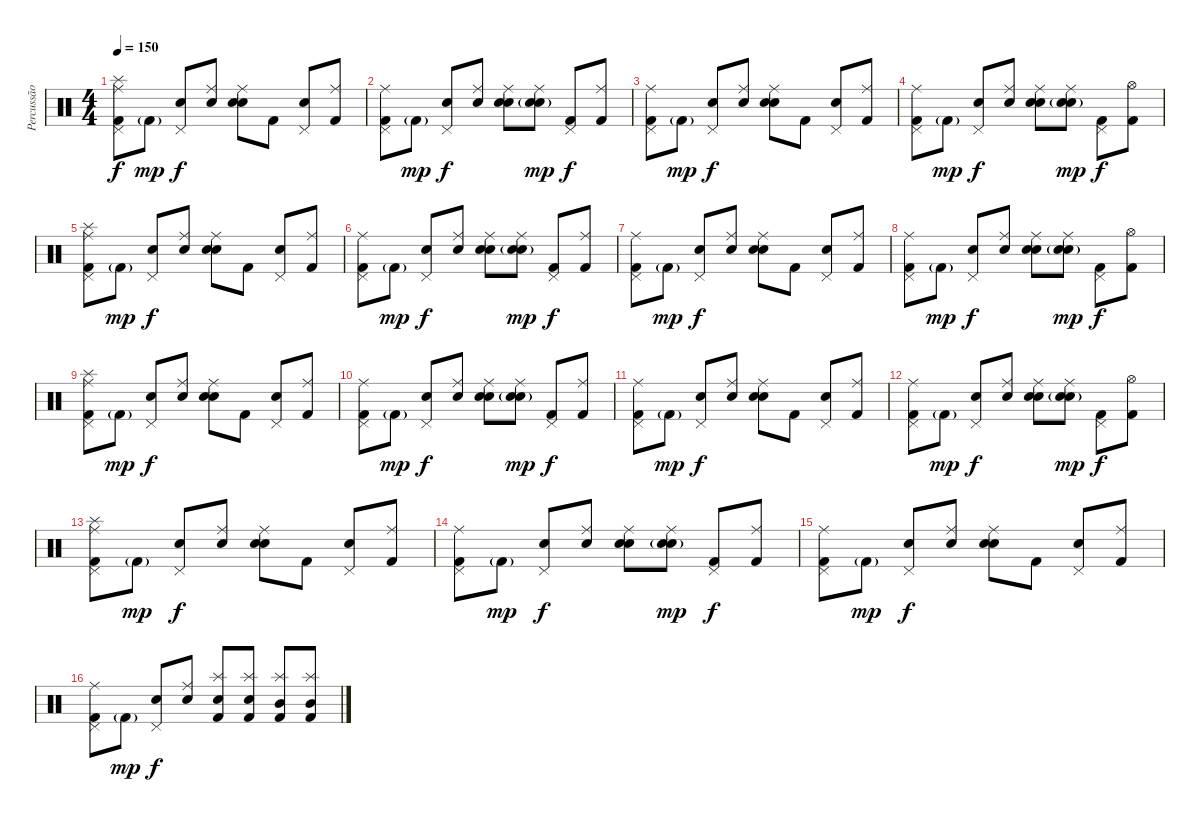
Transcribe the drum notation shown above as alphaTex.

\track ("Percussão" "Percussão") {instrument percussion}
\staff {score}
\articulation defaults
\ts (4 4)
\tempo 150
\clef neutral
\ks c
("Kick (hit) 2" "Pedal Hi-Hat (hit)" "Splash (hit)" "Ride (middle)").8{dy f} "Kick (hit) 2"{g}.8{dy mp} ("Snare (hit)" "Pedal Hi-Hat (hit)").8{dy f} ("Snare (hit)" "Ride (middle)").8 ("Snare (hit)" "Snare (hit) 2" "Ride (middle)").8 "Kick (hit) 2".8 ("Snare (hit)" "Pedal Hi-Hat (hit)").8 ("Kick (hit) 2" "Ride (middle)").8 |
("Kick (hit) 2" "Pedal Hi-Hat (hit)" "Ride (middle)").8 "Kick (hit) 2"{g}.8{dy mp} ("Snare (hit)" "Pedal Hi-Hat (hit)").8{dy f} ("Snare (hit)" "Ride (middle)").8 ("Snare (hit)" "Snare (hit) 2" "Ride (middle)").8 ("Snare (hit)" "Snare (hit) 2"{g} "Ride (middle)").8{dy mp} ("Kick (hit) 2" "Pedal Hi-Hat (hit)").8{dy f} ("Kick (hit) 2" "Ride (middle)").8 |
("Kick (hit) 2" "Pedal Hi-Hat (hit)" "Ride (middle)").8 "Kick (hit) 2"{g}.8{dy mp} ("Snare (hit)" "Pedal Hi-Hat (hit)").8{dy f} ("Snare (hit)" "Ride (middle)").8 ("Snare (hit)" "Snare (hit) 2" "Ride (middle)").8 "Kick (hit) 2".8 ("Snare (hit)" "Pedal Hi-Hat (hit)").8 ("Kick (hit) 2" "Ride (middle)").8 |
("Kick (hit) 2" "Pedal Hi-Hat (hit)" "Ride (middle)").8 "Kick (hit) 2"{g}.8{dy mp} ("Snare (hit)" "Pedal Hi-Hat (hit)").8{dy f} ("Snare (hit)" "Ride (middle)").8 ("Snare (hit)" "Snare (hit) 2" "Ride (middle)").8 ("Snare (hit)" "Snare (hit) 2"{g} "Ride (middle)").8{dy mp} ("Kick (hit) 2" "Pedal Hi-Hat (hit)").8{dy f} ("Kick (hit) 2" "Hi-Hat (open)").8 |
("Kick (hit) 2" "Pedal Hi-Hat (hit)" "Splash (hit)" "Ride (middle)").8 "Kick (hit) 2"{g}.8{dy mp} ("Snare (hit)" "Pedal Hi-Hat (hit)").8{dy f} ("Snare (hit)" "Ride (middle)").8 ("Snare (hit)" "Snare (hit) 2" "Ride (middle)").8 "Kick (hit) 2".8 ("Snare (hit)" "Pedal Hi-Hat (hit)").8 ("Kick (hit) 2" "Ride (middle)").8 |
("Kick (hit) 2" "Pedal Hi-Hat (hit)" "Ride (middle)").8 "Kick (hit) 2"{g}.8{dy mp} ("Snare (hit)" "Pedal Hi-Hat (hit)").8{dy f} ("Snare (hit)" "Ride (middle)").8 ("Snare (hit)" "Snare (hit) 2" "Ride (middle)").8 ("Snare (hit)" "Snare (hit) 2"{g} "Ride (middle)").8{dy mp} ("Kick (hit) 2" "Pedal Hi-Hat (hit)").8{dy f} ("Kick (hit) 2" "Ride (middle)").8 |
("Kick (hit) 2" "Pedal Hi-Hat (hit)" "Ride (middle)").8 "Kick (hit) 2"{g}.8{dy mp} ("Snare (hit)" "Pedal Hi-Hat (hit)").8{dy f} ("Snare (hit)" "Ride (middle)").8 ("Snare (hit)" "Snare (hit) 2" "Ride (middle)").8 "Kick (hit) 2".8 ("Snare (hit)" "Pedal Hi-Hat (hit)").8 ("Kick (hit) 2" "Ride (middle)").8 |
("Kick (hit) 2" "Pedal Hi-Hat (hit)" "Ride (middle)").8 "Kick (hit) 2"{g}.8{dy mp} ("Snare (hit)" "Pedal Hi-Hat (hit)").8{dy f} ("Snare (hit)" "Ride (middle)").8 ("Snare (hit)" "Snare (hit) 2" "Ride (middle)").8 ("Snare (hit)" "Snare (hit) 2"{g} "Ride (middle)").8{dy mp} ("Kick (hit) 2" "Pedal Hi-Hat (hit)").8{dy f} ("Kick (hit) 2" "Hi-Hat (open)").8 |
("Kick (hit) 2" "Pedal Hi-Hat (hit)" "Splash (hit)" "Ride (middle)").8 "Kick (hit) 2"{g}.8{dy mp} ("Snare (hit)" "Pedal Hi-Hat (hit)").8{dy f} ("Snare (hit)" "Ride (middle)").8 ("Snare (hit)" "Snare (hit) 2" "Ride (middle)").8 "Kick (hit) 2".8 ("Snare (hit)" "Pedal Hi-Hat (hit)").8 ("Kick (hit) 2" "Ride (middle)").8 |
("Kick (hit) 2" "Pedal Hi-Hat (hit)" "Ride (middle)").8 "Kick (hit) 2"{g}.8{dy mp} ("Snare (hit)" "Pedal Hi-Hat (hit)").8{dy f} ("Snare (hit)" "Ride (middle)").8 ("Snare (hit)" "Snare (hit) 2" "Ride (middle)").8 ("Snare (hit)" "Snare (hit) 2"{g} "Ride (middle)").8{dy mp} ("Kick (hit) 2" "Pedal Hi-Hat (hit)").8{dy f} ("Kick (hit) 2" "Ride (middle)").8 |
("Kick (hit) 2" "Pedal Hi-Hat (hit)" "Ride (middle)").8 "Kick (hit) 2"{g}.8{dy mp} ("Snare (hit)" "Pedal Hi-Hat (hit)").8{dy f} ("Snare (hit)" "Ride (middle)").8 ("Snare (hit)" "Snare (hit) 2" "Ride (middle)").8 "Kick (hit) 2".8 ("Snare (hit)" "Pedal Hi-Hat (hit)").8 ("Kick (hit) 2" "Ride (middle)").8 |
("Kick (hit) 2" "Pedal Hi-Hat (hit)" "Ride (middle)").8 "Kick (hit) 2"{g}.8{dy mp} ("Snare (hit)" "Pedal Hi-Hat (hit)").8{dy f} ("Snare (hit)" "Ride (middle)").8 ("Snare (hit)" "Snare (hit) 2" "Ride (middle)").8 ("Snare (hit)" "Snare (hit) 2"{g} "Ride (middle)").8{dy mp} ("Kick (hit) 2" "Pedal Hi-Hat (hit)").8{dy f} ("Kick (hit) 2" "Hi-Hat (open)").8 |
("Kick (hit) 2" "Pedal Hi-Hat (hit)" "Splash (hit)" "Ride (middle)").8 "Kick (hit) 2"{g}.8{dy mp} ("Snare (hit)" "Pedal Hi-Hat (hit)").8{dy f} ("Snare (hit)" "Ride (middle)").8 ("Snare (hit)" "Snare (hit) 2" "Ride (middle)").8 "Kick (hit) 2".8 ("Snare (hit)" "Pedal Hi-Hat (hit)").8 ("Kick (hit) 2" "Ride (middle)").8 |
("Kick (hit) 2" "Pedal Hi-Hat (hit)" "Ride (middle)").8 "Kick (hit) 2"{g}.8{dy mp} ("Snare (hit)" "Pedal Hi-Hat (hit)").8{dy f} ("Snare (hit)" "Ride (middle)").8 ("Snare (hit)" "Snare (hit) 2" "Ride (middle)").8 ("Snare (hit)" "Snare (hit) 2"{g} "Ride (middle)").8{dy mp} ("Kick (hit) 2" "Pedal Hi-Hat (hit)").8{dy f} ("Kick (hit) 2" "Ride (middle)").8 |
("Kick (hit) 2" "Pedal Hi-Hat (hit)" "Ride (middle)").8 "Kick (hit) 2"{g}.8{dy mp} ("Snare (hit)" "Pedal Hi-Hat (hit)").8{dy f} ("Snare (hit)" "Ride (middle)").8 ("Snare (hit)" "Snare (hit) 2" "Ride (middle)").8 "Kick (hit) 2".8 ("Snare (hit)" "Pedal Hi-Hat (hit)").8 ("Kick (hit) 2" "Ride (middle)").8 |
("Kick (hit) 2" "Pedal Hi-Hat (hit)" "Ride (middle)").8 "Kick (hit) 2"{g}.8{dy mp} ("Snare (hit)" "Pedal Hi-Hat (hit)").8{dy f} ("Snare (hit)" "Ride (middle)").8 ("Kick (hit) 2" "Snare (hit) 2" "Splash (hit)").8 ("Kick (hit) 2" "Snare (hit) 2" "Splash (hit)").8 ("Kick (hit) 2" "Mid Tom (hit)" "Splash (hit)").8 ("Kick (hit) 2" "Mid Tom (hit)" "Splash (hit)").8
